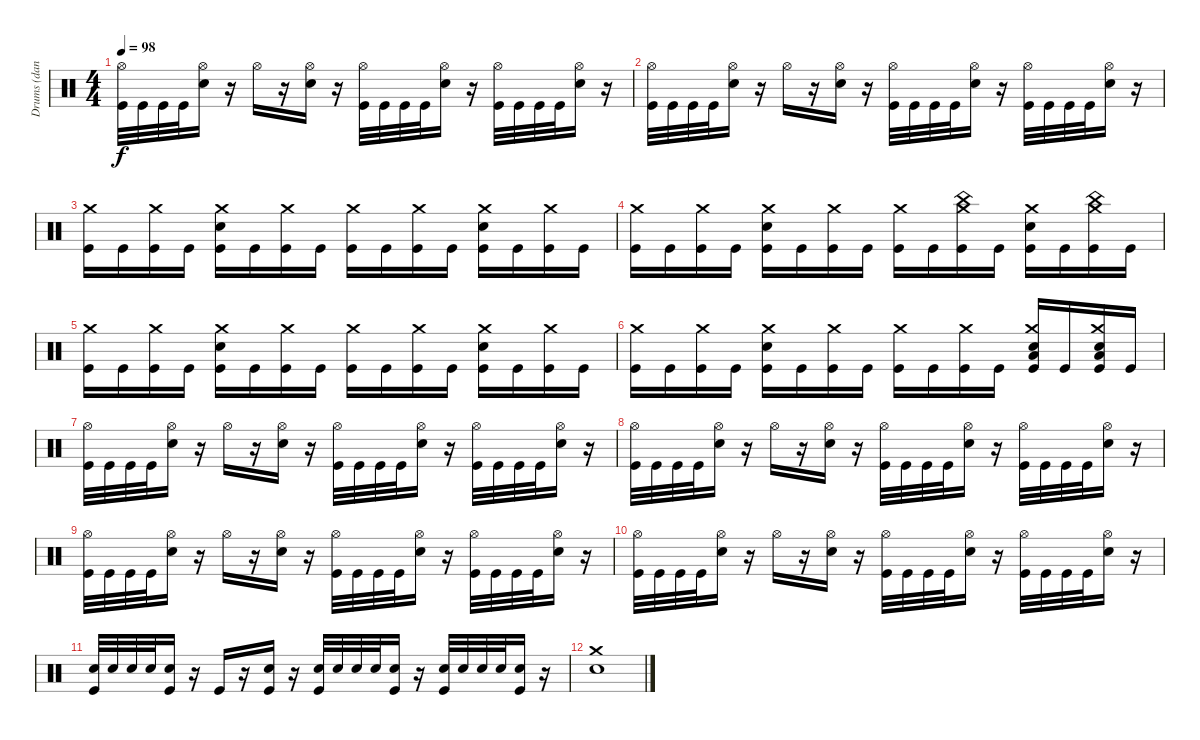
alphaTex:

\track ("Drums (dan)" "Drums (dan") {instrument percussion}
\staff {score}
\articulation defaults
\ts (4 4)
\tempo 98
\clef neutral
\ks c
("Hi-Hat (open)" "Kick (hit)").32{dy f} "Kick (hit)".32 "Kick (hit)".32 "Kick (hit)".32 ("Hi-Hat (open)" "Snare (hit) 2").16 r.16 "Hi-Hat (open)".16 r.16 ("Hi-Hat (open)" "Snare (hit) 2").16 r.16 ("Hi-Hat (open)" "Kick (hit)").32 "Kick (hit)".32 "Kick (hit)".32 "Kick (hit)".32 ("Hi-Hat (open)" "Snare (hit) 2").16 r.16 ("Hi-Hat (open)" "Kick (hit)").32 "Kick (hit)".32 "Kick (hit)".32 "Kick (hit)".32 ("Hi-Hat (open)" "Snare (hit) 2").16 r.16 |
("Hi-Hat (open)" "Kick (hit)").32 "Kick (hit)".32 "Kick (hit)".32 "Kick (hit)".32 ("Hi-Hat (open)" "Snare (hit) 2").16 r.16 "Hi-Hat (open)".16 r.16 ("Hi-Hat (open)" "Snare (hit) 2").16 r.16 ("Hi-Hat (open)" "Kick (hit)").32 "Kick (hit)".32 "Kick (hit)".32 "Kick (hit)".32 ("Hi-Hat (open)" "Snare (hit) 2").16 r.16 ("Hi-Hat (open)" "Kick (hit)").32 "Kick (hit)".32 "Kick (hit)".32 "Kick (hit)".32 ("Hi-Hat (open)" "Snare (hit) 2").16 r.16 |
("Crash medium (hit)" "Kick (hit)").16 "Kick (hit)".16 ("Crash medium (hit)" "Kick (hit)").16 "Kick (hit)".16 ("Crash medium (hit)" "Snare (hit) 2" "Kick (hit)").16 "Kick (hit)".16 ("Crash medium (hit)" "Kick (hit)").16 "Kick (hit)".16 ("Crash medium (hit)" "Kick (hit)").16 "Kick (hit)".16 ("Crash medium (hit)" "Kick (hit)").16 "Kick (hit)".16 ("Crash medium (hit)" "Snare (hit) 2" "Kick (hit)").16 "Kick (hit)".16 ("Crash medium (hit)" "Kick (hit)").16 "Kick (hit)".16 |
("Crash medium (hit)" "Kick (hit)").16 "Kick (hit)".16 ("Crash medium (hit)" "Kick (hit)").16 "Kick (hit)".16 ("Crash medium (hit)" "Snare (hit) 2" "Kick (hit)").16 "Kick (hit)".16 ("Crash medium (hit)" "Kick (hit)").16 "Kick (hit)".16 ("Crash medium (hit)" "Kick (hit)").16 "Kick (hit)".16 ("Crash medium (hit)" "China (hit)" "Kick (hit)").16 "Kick (hit)".16 ("Crash medium (hit)" "Snare (hit) 2" "Kick (hit)").16 "Kick (hit)".16 ("Crash medium (hit)" "China (hit)" "Kick (hit)").16 "Kick (hit)".16 |
("Crash medium (hit)" "Kick (hit)").16 "Kick (hit)".16 ("Crash medium (hit)" "Kick (hit)").16 "Kick (hit)".16 ("Crash medium (hit)" "Snare (hit) 2" "Kick (hit)").16 "Kick (hit)".16 ("Crash medium (hit)" "Kick (hit)").16 "Kick (hit)".16 ("Crash medium (hit)" "Kick (hit)").16 "Kick (hit)".16 ("Crash medium (hit)" "Kick (hit)").16 "Kick (hit)".16 ("Crash medium (hit)" "Snare (hit) 2" "Kick (hit)").16 "Kick (hit)".16 ("Crash medium (hit)" "Kick (hit)").16 "Kick (hit)".16 |
("Crash medium (hit)" "Kick (hit)").16 "Kick (hit)".16 ("Crash medium (hit)" "Kick (hit)").16 "Kick (hit)".16 ("Crash medium (hit)" "Snare (hit) 2" "Kick (hit)").16 "Kick (hit)".16 ("Crash medium (hit)" "Kick (hit)").16 "Kick (hit)".16 ("Crash medium (hit)" "Kick (hit)").16 "Kick (hit)".16 ("Crash medium (hit)" "Kick (hit)").16 "Kick (hit)".16 ("Crash medium (hit)" "Snare (hit) 2" "Low Tom (hit)" "Kick (hit)").16 "Kick (hit)".16 ("Crash medium (hit)" "Snare (hit) 2" "Low Tom (hit)" "Kick (hit)").16 "Kick (hit)".16 |
("Hi-Hat (open)" "Kick (hit)").32 "Kick (hit)".32 "Kick (hit)".32 "Kick (hit)".32 ("Hi-Hat (open)" "Snare (hit) 2").16 r.16 "Hi-Hat (open)".16 r.16 ("Hi-Hat (open)" "Snare (hit) 2").16 r.16 ("Hi-Hat (open)" "Kick (hit)").32 "Kick (hit)".32 "Kick (hit)".32 "Kick (hit)".32 ("Hi-Hat (open)" "Snare (hit) 2").16 r.16 ("Hi-Hat (open)" "Kick (hit)").32 "Kick (hit)".32 "Kick (hit)".32 "Kick (hit)".32 ("Hi-Hat (open)" "Snare (hit) 2").16 r.16 |
("Hi-Hat (open)" "Kick (hit)").32 "Kick (hit)".32 "Kick (hit)".32 "Kick (hit)".32 ("Hi-Hat (open)" "Snare (hit) 2").16 r.16 "Hi-Hat (open)".16 r.16 ("Hi-Hat (open)" "Snare (hit) 2").16 r.16 ("Hi-Hat (open)" "Kick (hit)").32 "Kick (hit)".32 "Kick (hit)".32 "Kick (hit)".32 ("Hi-Hat (open)" "Snare (hit) 2").16 r.16 ("Hi-Hat (open)" "Kick (hit)").32 "Kick (hit)".32 "Kick (hit)".32 "Kick (hit)".32 ("Hi-Hat (open)" "Snare (hit) 2").16 r.16 |
("Hi-Hat (open)" "Kick (hit)").32 "Kick (hit)".32 "Kick (hit)".32 "Kick (hit)".32 ("Hi-Hat (open)" "Snare (hit) 2").16 r.16 "Hi-Hat (open)".16 r.16 ("Hi-Hat (open)" "Snare (hit) 2").16 r.16 ("Hi-Hat (open)" "Kick (hit)").32 "Kick (hit)".32 "Kick (hit)".32 "Kick (hit)".32 ("Hi-Hat (open)" "Snare (hit) 2").16 r.16 ("Hi-Hat (open)" "Kick (hit)").32 "Kick (hit)".32 "Kick (hit)".32 "Kick (hit)".32 ("Hi-Hat (open)" "Snare (hit) 2").16 r.16 |
("Hi-Hat (open)" "Kick (hit)").32 "Kick (hit)".32 "Kick (hit)".32 "Kick (hit)".32 ("Hi-Hat (open)" "Snare (hit) 2").16 r.16 "Hi-Hat (open)".16 r.16 ("Hi-Hat (open)" "Snare (hit) 2").16 r.16 ("Hi-Hat (open)" "Kick (hit)").32 "Kick (hit)".32 "Kick (hit)".32 "Kick (hit)".32 ("Hi-Hat (open)" "Snare (hit) 2").16 r.16 ("Hi-Hat (open)" "Kick (hit)").32 "Kick (hit)".32 "Kick (hit)".32 "Kick (hit)".32 ("Hi-Hat (open)" "Snare (hit) 2").16 r.16 |
("Snare (hit) 2" "Kick (hit)").32 "Snare (hit) 2".32 "Snare (hit) 2".32 "Snare (hit) 2".32 ("Snare (hit) 2" "Kick (hit)").16 r.16 "Kick (hit)".16 r.16 ("Snare (hit) 2" "Kick (hit)").16 r.16 ("Snare (hit) 2" "Kick (hit)").32 "Snare (hit) 2".32 "Snare (hit) 2".32 "Snare (hit) 2".32 ("Snare (hit) 2" "Kick (hit)").16 r.16 ("Snare (hit) 2" "Kick (hit)").32 "Snare (hit) 2".32 "Snare (hit) 2".32 "Snare (hit) 2".32 ("Snare (hit) 2" "Kick (hit)").16 r.16 |
("Crash medium (hit)" "Snare (hit) 2").1
